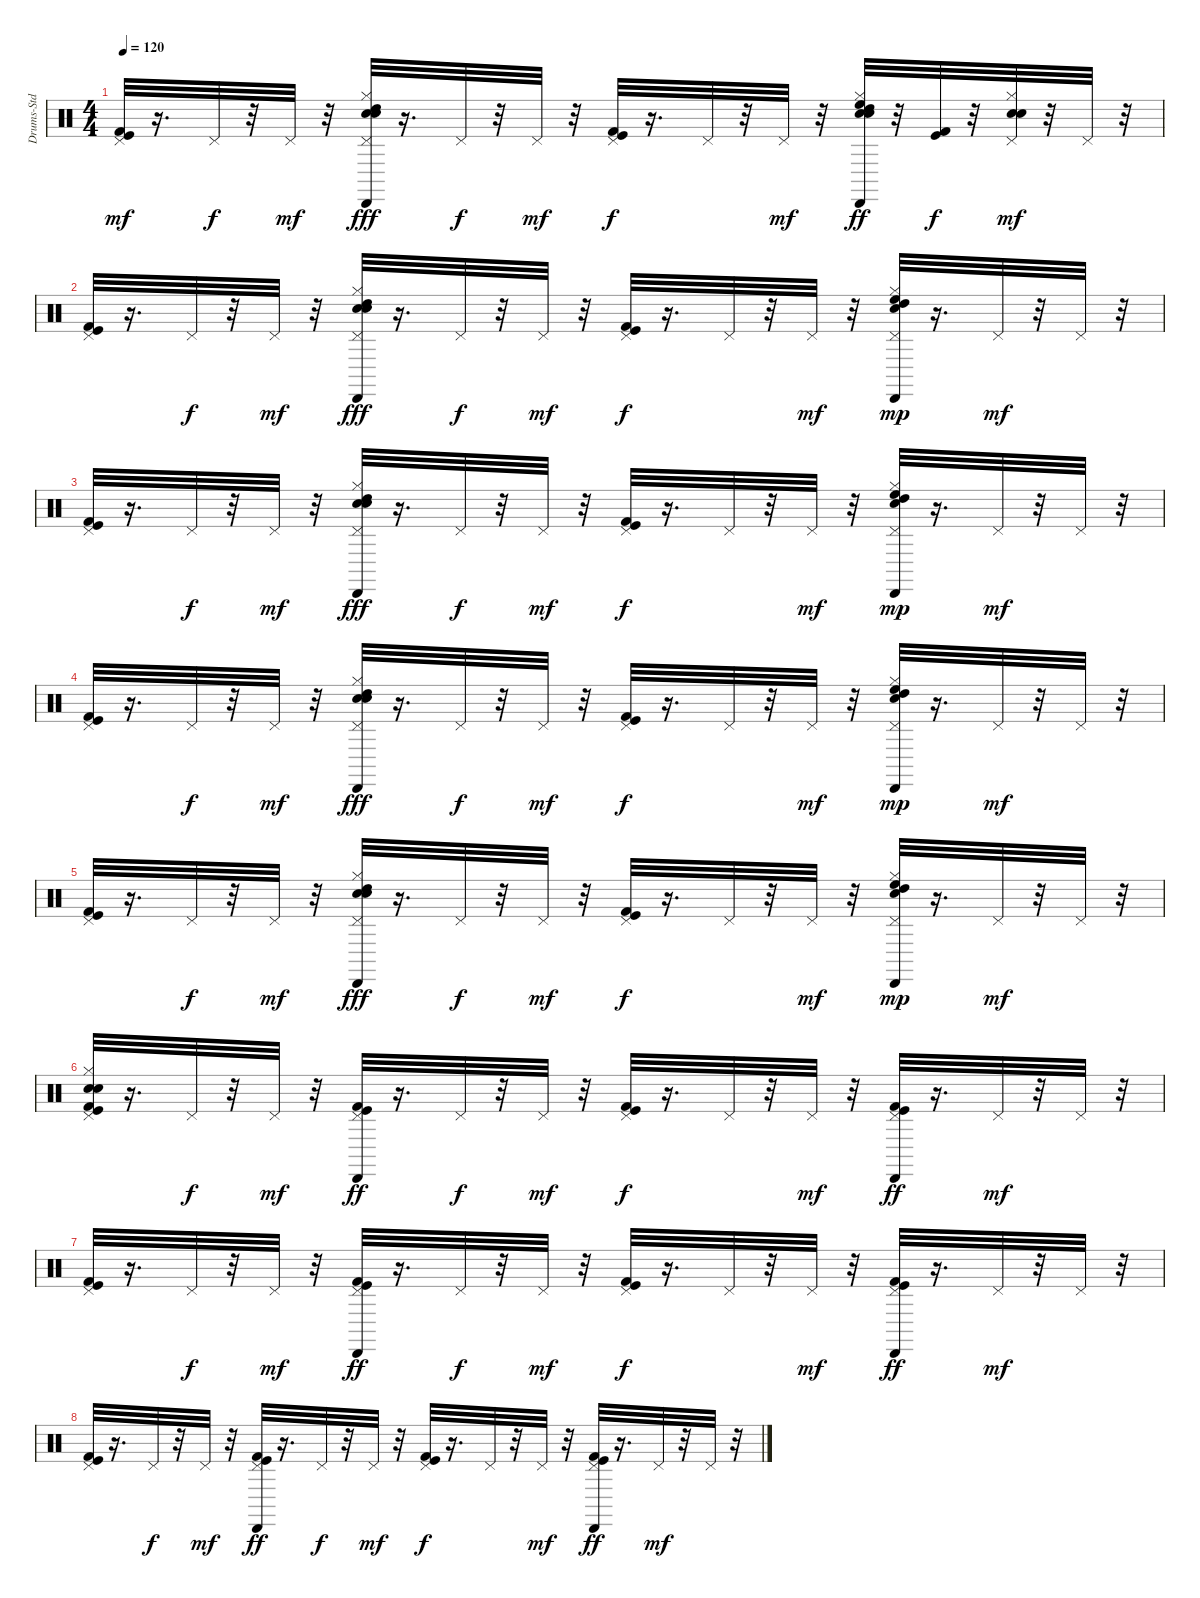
\track ("Drums-Std" "Drums-Std") {instrument percussion}
\staff {score}
\articulation defaults
\ts (4 4)
\tempo 120
\clef neutral
\ks c
("Pedal Hi-Hat (hit)" "Kick (hit) 2" "Kick (hit)").32{dy mf} r.16{d} "Pedal Hi-Hat (hit)".32{dy f} r.32 "Pedal Hi-Hat (hit)".32{dy mf} r.32 ("Snare (hit) 2" "High Tom (hit)" "Cabasa (hit)" "Hi-Hat (closed)" "Pedal Hi-Hat (hit)" "Electric Snare (hit)").32{dy fff} r.16{d} "Pedal Hi-Hat (hit)".32{dy f} r.32 "Pedal Hi-Hat (hit)".32{dy mf} r.32 ("Pedal Hi-Hat (hit)" "Kick (hit) 2" "Kick (hit)").32{dy f} r.16{d} "Pedal Hi-Hat (hit)".32 r.32 "Pedal Hi-Hat (hit)".32{dy mf} r.32 ("Snare (hit) 2" "Hi-Hat (closed)" "Electric Snare (hit)" "High Floor Tom (hit)" "High Tom (hit)" "Cabasa (hit)").32{dy ff} r.32 ("Kick (hit) 2" "Kick (hit)").32{dy f} r.32 ("Snare (hit) 2" "Hi-Hat (closed)" "Electric Snare (hit)" "Pedal Hi-Hat (hit)").32{dy mf} r.32 "Pedal Hi-Hat (hit)".32 r.32 |
("Pedal Hi-Hat (hit)" "Kick (hit) 2" "Kick (hit)").32 r.16{d} "Pedal Hi-Hat (hit)".32{dy f} r.32 "Pedal Hi-Hat (hit)".32{dy mf} r.32 ("Snare (hit) 2" "High Tom (hit)" "Cabasa (hit)" "Hi-Hat (closed)" "Pedal Hi-Hat (hit)" "Electric Snare (hit)").32{dy fff} r.16{d} "Pedal Hi-Hat (hit)".32{dy f} r.32 "Pedal Hi-Hat (hit)".32{dy mf} r.32 ("Pedal Hi-Hat (hit)" "Kick (hit) 2" "Kick (hit)").32{dy f} r.16{d} "Pedal Hi-Hat (hit)".32 r.32 "Pedal Hi-Hat (hit)".32{dy mf} r.32 ("Snare (hit) 2" "High Floor Tom (hit)" "High Tom (hit)" "Cabasa (hit)" "Hi-Hat (closed)" "Pedal Hi-Hat (hit)").32{dy mp} r.16{d} "Pedal Hi-Hat (hit)".32{dy mf} r.32 "Pedal Hi-Hat (hit)".32 r.32 |
("Pedal Hi-Hat (hit)" "Kick (hit) 2" "Kick (hit)").32 r.16{d} "Pedal Hi-Hat (hit)".32{dy f} r.32 "Pedal Hi-Hat (hit)".32{dy mf} r.32 ("Snare (hit) 2" "High Tom (hit)" "Cabasa (hit)" "Hi-Hat (closed)" "Pedal Hi-Hat (hit)" "Electric Snare (hit)").32{dy fff} r.16{d} "Pedal Hi-Hat (hit)".32{dy f} r.32 "Pedal Hi-Hat (hit)".32{dy mf} r.32 ("Pedal Hi-Hat (hit)" "Kick (hit) 2" "Kick (hit)").32{dy f} r.16{d} "Pedal Hi-Hat (hit)".32 r.32 "Pedal Hi-Hat (hit)".32{dy mf} r.32 ("Snare (hit) 2" "High Floor Tom (hit)" "High Tom (hit)" "Cabasa (hit)" "Hi-Hat (closed)" "Pedal Hi-Hat (hit)").32{dy mp} r.16{d} "Pedal Hi-Hat (hit)".32{dy mf} r.32 "Pedal Hi-Hat (hit)".32 r.32 |
("Pedal Hi-Hat (hit)" "Kick (hit) 2" "Kick (hit)").32 r.16{d} "Pedal Hi-Hat (hit)".32{dy f} r.32 "Pedal Hi-Hat (hit)".32{dy mf} r.32 ("Snare (hit) 2" "High Tom (hit)" "Cabasa (hit)" "Hi-Hat (closed)" "Pedal Hi-Hat (hit)" "Electric Snare (hit)").32{dy fff} r.16{d} "Pedal Hi-Hat (hit)".32{dy f} r.32 "Pedal Hi-Hat (hit)".32{dy mf} r.32 ("Pedal Hi-Hat (hit)" "Kick (hit) 2" "Kick (hit)").32{dy f} r.16{d} "Pedal Hi-Hat (hit)".32 r.32 "Pedal Hi-Hat (hit)".32{dy mf} r.32 ("Snare (hit) 2" "High Floor Tom (hit)" "High Tom (hit)" "Cabasa (hit)" "Hi-Hat (closed)" "Pedal Hi-Hat (hit)").32{dy mp} r.16{d} "Pedal Hi-Hat (hit)".32{dy mf} r.32 "Pedal Hi-Hat (hit)".32 r.32 |
("Pedal Hi-Hat (hit)" "Kick (hit) 2" "Kick (hit)").32 r.16{d} "Pedal Hi-Hat (hit)".32{dy f} r.32 "Pedal Hi-Hat (hit)".32{dy mf} r.32 ("Snare (hit) 2" "High Tom (hit)" "Cabasa (hit)" "Hi-Hat (closed)" "Pedal Hi-Hat (hit)" "Electric Snare (hit)").32{dy fff} r.16{d} "Pedal Hi-Hat (hit)".32{dy f} r.32 "Pedal Hi-Hat (hit)".32{dy mf} r.32 ("Pedal Hi-Hat (hit)" "Kick (hit) 2" "Kick (hit)").32{dy f} r.16{d} "Pedal Hi-Hat (hit)".32 r.32 "Pedal Hi-Hat (hit)".32{dy mf} r.32 ("Snare (hit) 2" "High Floor Tom (hit)" "High Tom (hit)" "Cabasa (hit)" "Hi-Hat (closed)" "Pedal Hi-Hat (hit)").32{dy mp} r.16{d} "Pedal Hi-Hat (hit)".32{dy mf} r.32 "Pedal Hi-Hat (hit)".32 r.32 |
("Snare (hit) 2" "Hi-Hat (closed)" "Electric Snare (hit)" "Pedal Hi-Hat (hit)" "Kick (hit) 2" "Kick (hit)").32 r.16{d} "Pedal Hi-Hat (hit)".32{dy f} r.32 "Pedal Hi-Hat (hit)".32{dy mf} r.32 ("Kick (hit) 2" "Kick (hit)" "Cabasa (hit)" "Pedal Hi-Hat (hit)").32{dy ff} r.16{d} "Pedal Hi-Hat (hit)".32{dy f} r.32 "Pedal Hi-Hat (hit)".32{dy mf} r.32 ("Pedal Hi-Hat (hit)" "Kick (hit) 2" "Kick (hit)").32{dy f} r.16{d} "Pedal Hi-Hat (hit)".32 r.32 "Pedal Hi-Hat (hit)".32{dy mf} r.32 ("Kick (hit) 2" "Kick (hit)" "Cabasa (hit)" "Pedal Hi-Hat (hit)").32{dy ff} r.16{d} "Pedal Hi-Hat (hit)".32{dy mf} r.32 "Pedal Hi-Hat (hit)".32 r.32 |
("Pedal Hi-Hat (hit)" "Kick (hit) 2" "Kick (hit)").32 r.16{d} "Pedal Hi-Hat (hit)".32{dy f} r.32 "Pedal Hi-Hat (hit)".32{dy mf} r.32 ("Kick (hit) 2" "Kick (hit)" "Cabasa (hit)" "Pedal Hi-Hat (hit)").32{dy ff} r.16{d} "Pedal Hi-Hat (hit)".32{dy f} r.32 "Pedal Hi-Hat (hit)".32{dy mf} r.32 ("Pedal Hi-Hat (hit)" "Kick (hit) 2" "Kick (hit)").32{dy f} r.16{d} "Pedal Hi-Hat (hit)".32 r.32 "Pedal Hi-Hat (hit)".32{dy mf} r.32 ("Kick (hit) 2" "Kick (hit)" "Cabasa (hit)" "Pedal Hi-Hat (hit)").32{dy ff} r.16{d} "Pedal Hi-Hat (hit)".32{dy mf} r.32 "Pedal Hi-Hat (hit)".32 r.32 |
("Pedal Hi-Hat (hit)" "Kick (hit) 2" "Kick (hit)").32 r.16{d} "Pedal Hi-Hat (hit)".32{dy f} r.32 "Pedal Hi-Hat (hit)".32{dy mf} r.32 ("Kick (hit) 2" "Kick (hit)" "Cabasa (hit)" "Pedal Hi-Hat (hit)").32{dy ff} r.16{d} "Pedal Hi-Hat (hit)".32{dy f} r.32 "Pedal Hi-Hat (hit)".32{dy mf} r.32 ("Pedal Hi-Hat (hit)" "Kick (hit) 2" "Kick (hit)").32{dy f} r.16{d} "Pedal Hi-Hat (hit)".32 r.32 "Pedal Hi-Hat (hit)".32{dy mf} r.32 ("Kick (hit) 2" "Kick (hit)" "Cabasa (hit)" "Pedal Hi-Hat (hit)").32{dy ff} r.16{d} "Pedal Hi-Hat (hit)".32{dy mf} r.32 "Pedal Hi-Hat (hit)".32 r.32
